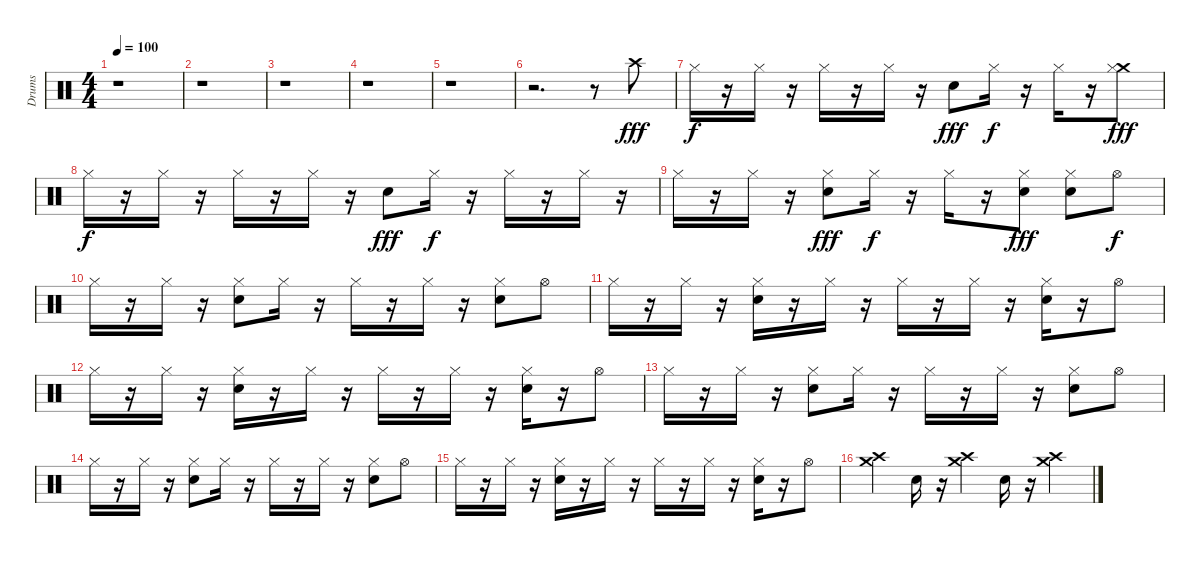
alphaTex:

\track ("Drums" "Drums") {instrument percussion}
\staff {score}
\articulation defaults
\ts (4 4)
\tempo 100
\clef neutral
\ks c
r.1{dy f} |
r.1 |
r.1 |
r.1 |
r.1 |
r.2{d} r.8 "Crash high (hit)".8{dy fff} |
"Hi-Hat (closed)".16{dy f} r.16 "Hi-Hat (closed)".16 r.16 "Hi-Hat (closed)".16 r.16 "Hi-Hat (closed)".16 r.16 "Snare (hit) 2".8{dy fff} "Hi-Hat (closed)".16{dy f} r.16 "Hi-Hat (closed)".16 r.16 ("Crash medium (hit)" "Hi-Hat (closed)").8{dy fff} |
"Hi-Hat (closed)".16{dy f} r.16 "Hi-Hat (closed)".16 r.16 "Hi-Hat (closed)".16 r.16 "Hi-Hat (closed)".16 r.16 "Snare (hit) 2".8{dy fff} "Hi-Hat (closed)".16{dy f} r.16 "Hi-Hat (closed)".16 r.16 "Hi-Hat (closed)".16 r.16 |
"Hi-Hat (closed)".16 r.16 "Hi-Hat (closed)".16 r.16 ("Snare (hit) 2" "Hi-Hat (closed)").8{dy fff} "Hi-Hat (closed)".16{dy f} r.16 "Hi-Hat (closed)".16 r.16 ("Snare (hit) 2" "Hi-Hat (closed)").8{dy fff} ("Snare (hit) 2" "Hi-Hat (closed)").8 "Hi-Hat (open)".8{dy f} |
"Hi-Hat (closed)".16 r.16 "Hi-Hat (closed)".16 r.16 ("Hi-Hat (closed)" "Snare (hit) 2").8 "Hi-Hat (closed)".16 r.16 "Hi-Hat (closed)".16 r.16 "Hi-Hat (closed)".16 r.16 ("Snare (hit) 2" "Hi-Hat (closed)").8 "Hi-Hat (open)".8 |
"Hi-Hat (closed)".16 r.16 "Hi-Hat (closed)".16 r.16 ("Hi-Hat (closed)" "Snare (hit) 2").16 r.16 "Hi-Hat (closed)".16 r.16 "Hi-Hat (closed)".16 r.16 "Hi-Hat (closed)".16 r.16 ("Hi-Hat (closed)" "Snare (hit) 2").16 r.16 "Hi-Hat (open)".8 |
"Hi-Hat (closed)".16 r.16 "Hi-Hat (closed)".16 r.16 ("Hi-Hat (closed)" "Snare (hit) 2").16 r.16 "Hi-Hat (closed)".16 r.16 "Hi-Hat (closed)".16 r.16 "Hi-Hat (closed)".16 r.16 ("Hi-Hat (closed)" "Snare (hit) 2").16 r.16 "Hi-Hat (open)".8 |
"Hi-Hat (closed)".16 r.16 "Hi-Hat (closed)".16 r.16 ("Snare (hit) 2" "Hi-Hat (closed)").8 "Hi-Hat (closed)".16 r.16 "Hi-Hat (closed)".16 r.16 "Hi-Hat (closed)".16 r.16 ("Snare (hit) 2" "Hi-Hat (closed)").8 "Hi-Hat (open)".8 |
"Hi-Hat (closed)".16 r.16 "Hi-Hat (closed)".16 r.16 ("Hi-Hat (closed)" "Snare (hit) 2").8 "Hi-Hat (closed)".16 r.16 "Hi-Hat (closed)".16 r.16 "Hi-Hat (closed)".16 r.16 ("Snare (hit) 2" "Hi-Hat (closed)").8 "Hi-Hat (open)".8 |
"Hi-Hat (closed)".16 r.16 "Hi-Hat (closed)".16 r.16 ("Hi-Hat (closed)" "Snare (hit) 2").16 r.16 "Hi-Hat (closed)".16 r.16 "Hi-Hat (closed)".16 r.16 "Hi-Hat (closed)".16 r.16 ("Hi-Hat (closed)" "Snare (hit) 2").16 r.16 "Hi-Hat (open)".8 |
("Crash high (hit)" "Crash medium (hit)").4 "Snare (hit) 2".16 r.16 ("Crash high (hit)" "Crash medium (hit)").4 "Snare (hit) 2".16 r.16 ("Crash high (hit)" "Crash medium (hit)").4
